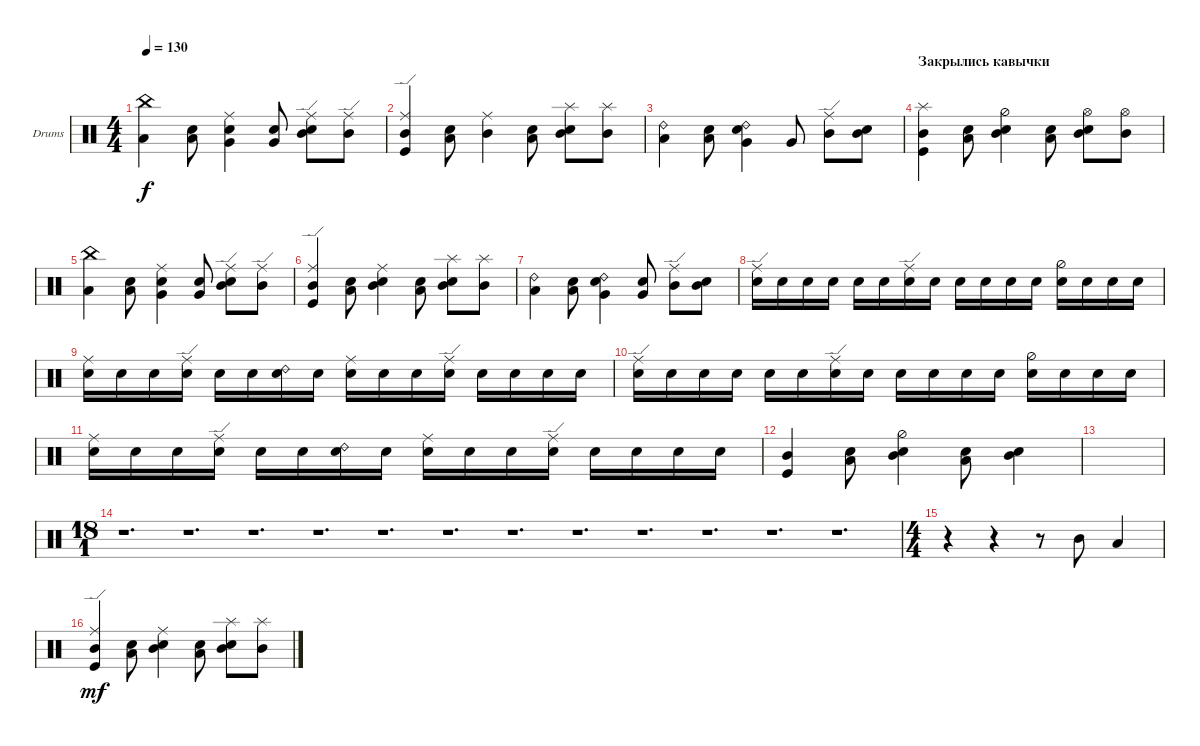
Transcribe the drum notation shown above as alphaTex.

\defaultSystemsLayout 4
\bracketExtendMode groupsimilarinstruments
\firstSystemTrackNameOrientation horizontal
\otherSystemsTrackNameOrientation horizontal
\track ("Drumkit" "Drums") {instrument percussion}
\staff {score}
\articulation defaults
\ts (4 4)
\tempo 130
\clef neutral
\ks c
("Low Tom (hit)" "China (hit)").4{dy f} ("Low Tom (hit)" "Snare (hit) 2").8 ("Very Low Tom (hit)" "Snare (hit) 2" "Ride (middle)").4 ("Very Low Tom (hit)" "Snare (hit) 2").8 ("Mid Tom (hit)" "Snare (hit) 2" "Ride (edge)").8 ("Mid Tom (hit)" "Ride (edge)").8 |
("Mid Tom (hit)" "Kick (hit)" "Ride (edge)").4 ("Low Tom (hit)" "Snare (hit) 2").8 ("Mid Tom (hit)" "Ride (middle)").4 ("Low Tom (hit)" "Snare (hit) 2").8 ("Mid Tom (hit)" "Snare (hit) 2" "Splash (hit)").8 ("Mid Tom (hit)" "Splash (hit)").8 |
("Low Tom (hit)" "Ride (bell) 2").4 ("Low Tom (hit)" "Snare (hit) 2").8 ("Very Low Tom (hit)" "Snare (hit) 2" "Ride (bell) 2").4 "Very Low Tom (hit)".8 ("Mid Tom (hit)" "Ride (edge)").8 ("Mid Tom (hit)" "Snare (hit) 2").8 |
\section ("" "Закрылись кавычки")
("Mid Tom (hit)" "Kick (hit)" "Splash (hit)").4 ("Low Tom (hit)" "Snare (hit) 2").8 ("Mid Tom (hit)" "Snare (hit) 2" "Hi-Hat (half)").4 ("Low Tom (hit)" "Snare (hit) 2").8 ("Mid Tom (hit)" "Snare (hit) 2" "Hi-Hat (open)").8 ("Mid Tom (hit)" "Hi-Hat (open)").8 |
("Low Tom (hit)" "China (hit)").4 ("Low Tom (hit)" "Snare (hit) 2").8 ("Very Low Tom (hit)" "Snare (hit) 2" "Ride (middle)").4 ("Very Low Tom (hit)" "Snare (hit) 2").8 ("Mid Tom (hit)" "Snare (hit) 2" "Ride (edge)").8 ("Mid Tom (hit)" "Ride (edge)").8 |
("Mid Tom (hit)" "Kick (hit)" "Ride (edge)").4 ("Low Tom (hit)" "Snare (hit) 2").8 ("Mid Tom (hit)" "Snare (hit) 2" "Ride (middle)").4 ("Low Tom (hit)" "Snare (hit) 2").8 ("Mid Tom (hit)" "Snare (hit) 2" "Splash (hit)").8 ("Mid Tom (hit)" "Splash (hit)").8 |
("Low Tom (hit)" "Ride (bell) 2").4 ("Low Tom (hit)" "Snare (hit) 2").8 ("Very Low Tom (hit)" "Snare (hit) 2" "Ride (bell) 2").4 ("Very Low Tom (hit)" "Snare (hit) 2").8 ("Mid Tom (hit)" "Ride (edge)").8 ("Mid Tom (hit)" "Snare (hit) 2").8 |
("Snare (hit) 2" "Ride (edge)").16 "Snare (hit) 2".16 "Snare (hit) 2".16 "Snare (hit) 2".16 "Snare (hit) 2".16 "Snare (hit) 2".16 ("Snare (hit) 2" "Ride (edge)").16 "Snare (hit) 2".16 "Snare (hit) 2".16 "Snare (hit) 2".16 "Snare (hit) 2".16 "Snare (hit) 2".16 ("Snare (hit) 2" "Hi-Hat (half)").16 "Snare (hit) 2".16 "Snare (hit) 2".16 "Snare (hit) 2".16 |
("Snare (hit) 2" "Ride (middle)").16 "Snare (hit) 2".16 "Snare (hit) 2".16 ("Snare (hit) 2" "Ride (edge)").16 "Snare (hit) 2".16 "Snare (hit) 2".16 ("Snare (hit) 2" "Ride (bell) 2").16 "Snare (hit) 2".16 ("Snare (hit) 2" "Ride (middle)").16 "Snare (hit) 2".16 "Snare (hit) 2".16 ("Snare (hit) 2" "Ride (edge)").16 "Snare (hit) 2".16 "Snare (hit) 2".16 "Snare (hit) 2".16 "Snare (hit) 2".16 |
("Snare (hit) 2" "Ride (edge)").16 "Snare (hit) 2".16 "Snare (hit) 2".16 "Snare (hit) 2".16 "Snare (hit) 2".16 "Snare (hit) 2".16 ("Snare (hit) 2" "Ride (edge)").16 "Snare (hit) 2".16 "Snare (hit) 2".16 "Snare (hit) 2".16 "Snare (hit) 2".16 "Snare (hit) 2".16 ("Snare (hit) 2" "Hi-Hat (half)").16 "Snare (hit) 2".16 "Snare (hit) 2".16 "Snare (hit) 2".16 |
("Snare (hit) 2" "Ride (middle)").16 "Snare (hit) 2".16 "Snare (hit) 2".16 ("Snare (hit) 2" "Ride (edge)").16 "Snare (hit) 2".16 "Snare (hit) 2".16 ("Snare (hit) 2" "Ride (bell) 2").16 "Snare (hit) 2".16 ("Snare (hit) 2" "Ride (middle)").16 "Snare (hit) 2".16 "Snare (hit) 2".16 ("Snare (hit) 2" "Ride (edge)").16 "Snare (hit) 2".16 "Snare (hit) 2".16 "Snare (hit) 2".16 "Snare (hit) 2".16 |
("Mid Tom (hit)" "Kick (hit)").4 ("Low Tom (hit)" "Snare (hit) 2").8 ("Mid Tom (hit)" "Snare (hit) 2" "Hi-Hat (half)").4 ("Low Tom (hit)" "Snare (hit) 2").8 ("Mid Tom (hit)" "Snare (hit) 2").4 |
|
\ts (18 1)
r.1{d} r.1{d} r.1{d} r.1{d} r.1{d} r.1{d} r.1{d} r.1{d} r.1{d} r.1{d} r.1{d} r.1{d} |
\ts (4 4)
r.4 r.4 r.8 "Mid Tom (hit)".8 "Low Tom (hit)".4 |
("Mid Tom (hit)" "Kick (hit)" "Ride (edge)").4{dy mf} ("Low Tom (hit)" "Snare (hit) 2").8 ("Mid Tom (hit)" "Snare (hit) 2" "Ride (middle)").4 ("Low Tom (hit)" "Snare (hit) 2").8 ("Mid Tom (hit)" "Snare (hit) 2" "Splash (hit)").8 ("Mid Tom (hit)" "Splash (hit)").8
